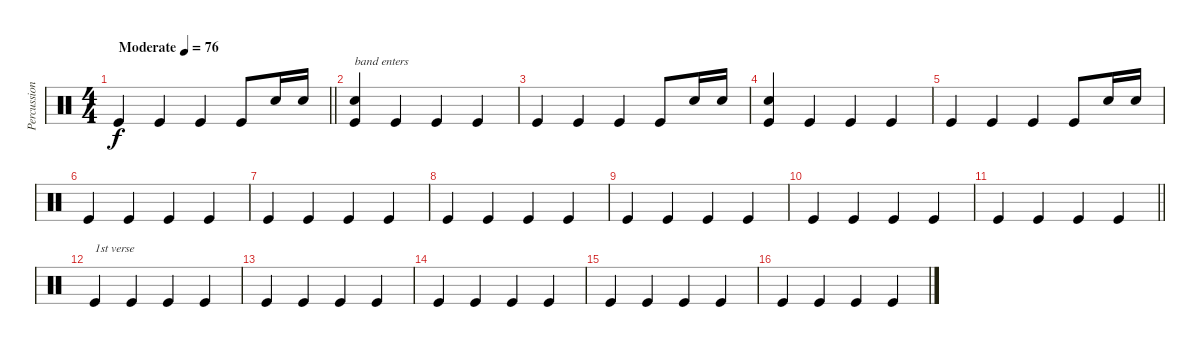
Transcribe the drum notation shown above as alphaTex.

\track ("Percussion" "Percussion") {instrument percussion}
\staff {score}
\articulation defaults
\ts (4 4)
\tempo (76 "Moderate")
\clef neutral
\barLineRight lightlight
\ks c "Kick (hit)".4{dy f} "Kick (hit)".4 "Kick (hit)".4 "Kick (hit)".8 "Snare (hit) 2".16 "Snare (hit) 2".16
|
("Snare (hit) 2" "Kick (hit)").4{txt "band enters"} "Kick (hit)".4 "Kick (hit)".4 "Kick (hit)".4 |
"Kick (hit)".4 "Kick (hit)".4 "Kick (hit)".4 "Kick (hit)".8 "Snare (hit) 2".16 "Snare (hit) 2".16 |
("Snare (hit) 2" "Kick (hit)").4 "Kick (hit)".4 "Kick (hit)".4 "Kick (hit)".4 |
"Kick (hit)".4 "Kick (hit)".4 "Kick (hit)".4 "Kick (hit)".8 "Snare (hit) 2".16 "Snare (hit) 2".16 |
"Kick (hit)".4 "Kick (hit)".4 "Kick (hit)".4 "Kick (hit)".4 |
"Kick (hit)".4 "Kick (hit)".4 "Kick (hit)".4 "Kick (hit)".4 |
"Kick (hit)".4 "Kick (hit)".4 "Kick (hit)".4 "Kick (hit)".4 |
"Kick (hit)".4 "Kick (hit)".4 "Kick (hit)".4 "Kick (hit)".4 |
"Kick (hit)".4 "Kick (hit)".4 "Kick (hit)".4 "Kick (hit)".4 |
\barLineRight lightlight "Kick (hit)".4 "Kick (hit)".4 "Kick (hit)".4 "Kick (hit)".4
|
"Kick (hit)".4{txt "1st verse"} "Kick (hit)".4 "Kick (hit)".4 "Kick (hit)".4 |
"Kick (hit)".4 "Kick (hit)".4 "Kick (hit)".4 "Kick (hit)".4 |
"Kick (hit)".4 "Kick (hit)".4 "Kick (hit)".4 "Kick (hit)".4 |
"Kick (hit)".4 "Kick (hit)".4 "Kick (hit)".4 "Kick (hit)".4 |
"Kick (hit)".4 "Kick (hit)".4 "Kick (hit)".4 "Kick (hit)".4
